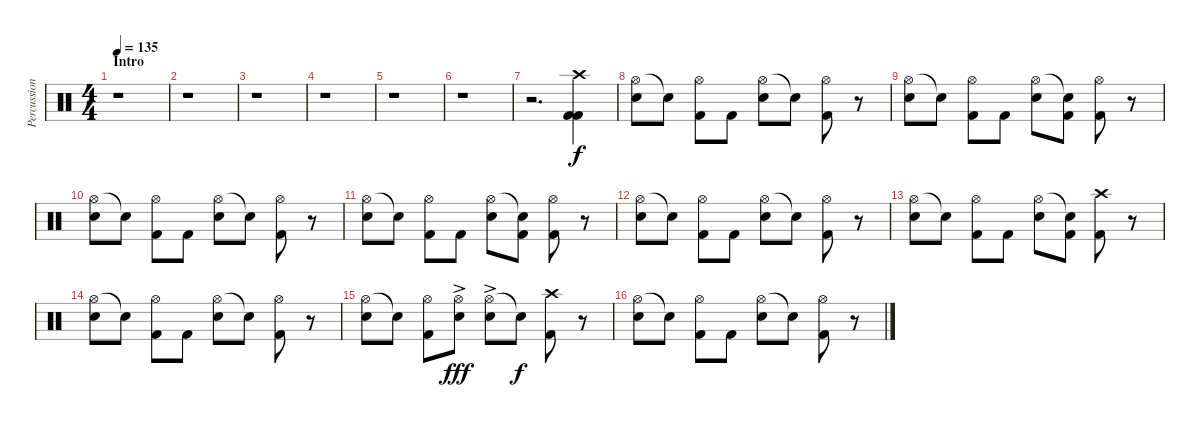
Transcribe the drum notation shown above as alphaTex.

\track ("Percussion" "Percussion") {instrument percussion}
\staff {score}
\articulation defaults
\ts (4 4)
\section ("" "Intro")
\tempo 135
\clef neutral
\ks c
r.1{dy f} |
r.1 |
r.1 |
r.1 |
r.1 |
r.1 |
r.2{d} ("Crash high (hit)" "Kick (hit) 2" "Kick (hit) 2").4 |
("Hi-Hat (open)" "Electric Snare (hit)").8 "Electric Snare (hit)"{t}.8 ("Hi-Hat (open)" "Kick (hit) 2").8 "Kick (hit) 2".8 ("Hi-Hat (open)" "Electric Snare (hit)").8 "Electric Snare (hit)"{t}.8 ("Hi-Hat (open)" "Kick (hit) 2").8 r.8 |
("Hi-Hat (open)" "Electric Snare (hit)").8 "Electric Snare (hit)"{t}.8 ("Hi-Hat (open)" "Kick (hit) 2").8 "Kick (hit) 2".8 ("Hi-Hat (open)" "Electric Snare (hit)").8 ("Electric Snare (hit)"{t} "Kick (hit) 2").8 ("Hi-Hat (open)" "Kick (hit) 2").8 r.8 |
("Hi-Hat (open)" "Electric Snare (hit)").8 "Electric Snare (hit)"{t}.8 ("Hi-Hat (open)" "Kick (hit) 2").8 "Kick (hit) 2".8 ("Hi-Hat (open)" "Electric Snare (hit)").8 "Electric Snare (hit)"{t}.8 ("Hi-Hat (open)" "Kick (hit) 2").8 r.8 |
("Hi-Hat (open)" "Electric Snare (hit)").8 "Electric Snare (hit)"{t}.8 ("Hi-Hat (open)" "Kick (hit) 2").8 "Kick (hit) 2".8 ("Hi-Hat (open)" "Electric Snare (hit)").8 ("Electric Snare (hit)"{t} "Kick (hit) 2").8 ("Hi-Hat (open)" "Kick (hit) 2").8 r.8 |
("Hi-Hat (open)" "Electric Snare (hit)").8 "Electric Snare (hit)"{t}.8 ("Hi-Hat (open)" "Kick (hit) 2").8 "Kick (hit) 2".8 ("Hi-Hat (open)" "Electric Snare (hit)").8 "Electric Snare (hit)"{t}.8 ("Hi-Hat (open)" "Kick (hit) 2").8 r.8 |
("Hi-Hat (open)" "Electric Snare (hit)").8 "Electric Snare (hit)"{t}.8 ("Hi-Hat (open)" "Kick (hit) 2").8 "Kick (hit) 2".8 ("Hi-Hat (open)" "Electric Snare (hit)").8 ("Electric Snare (hit)"{t} "Kick (hit) 2").8 ("Crash high (hit)" "Kick (hit) 2").8 r.8 |
("Hi-Hat (open)" "Electric Snare (hit)").8 "Electric Snare (hit)"{t}.8 ("Hi-Hat (open)" "Kick (hit) 2").8 "Kick (hit) 2".8 ("Hi-Hat (open)" "Electric Snare (hit)").8 "Electric Snare (hit)"{t}.8 ("Hi-Hat (open)" "Kick (hit) 2").8 r.8 |
("Hi-Hat (open)" "Electric Snare (hit)").8 "Electric Snare (hit)"{t}.8 ("Hi-Hat (open)" "Kick (hit) 2").8 ("Hi-Hat (open)"{ac} "Electric Snare (hit)").8{dy fff} ("Hi-Hat (open)"{ac} "Electric Snare (hit)").8 "Electric Snare (hit)"{t}.8{dy f} ("Crash high (hit)" "Kick (hit) 2").8 r.8 |
("Hi-Hat (open)" "Electric Snare (hit)").8 "Electric Snare (hit)"{t}.8 ("Hi-Hat (open)" "Kick (hit) 2").8 "Kick (hit) 2".8 ("Hi-Hat (open)" "Electric Snare (hit)").8 "Electric Snare (hit)"{t}.8 ("Hi-Hat (open)" "Kick (hit) 2").8 r.8
